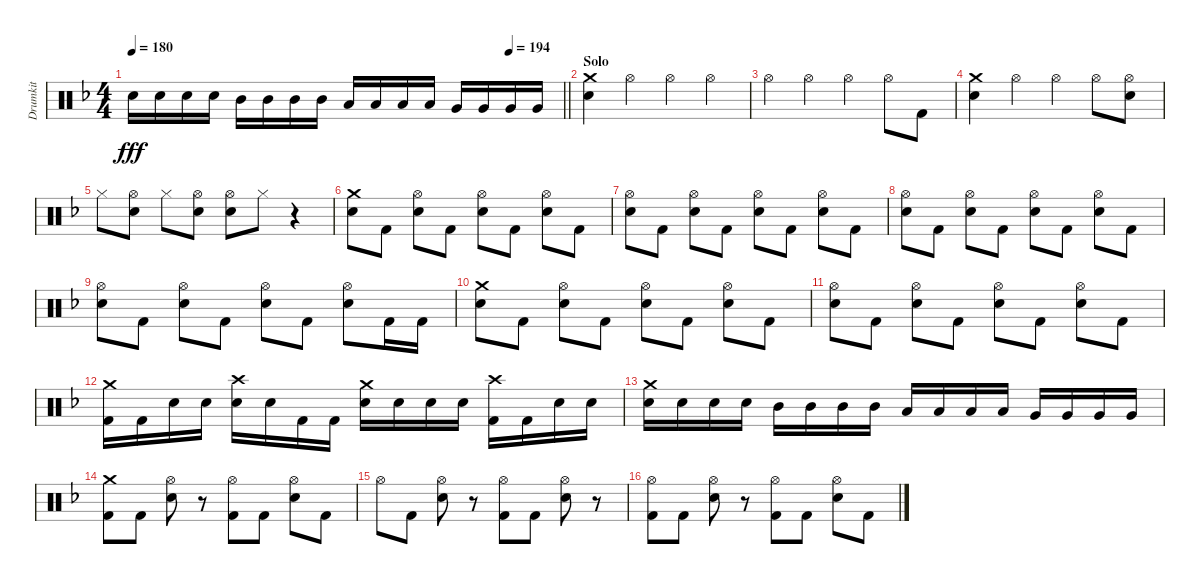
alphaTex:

\track ("Drumkit" "Drumkit") {instrument percussion}
\staff {score}
\articulation defaults
\ts (4 4)
\tempo 180
\tempo (194 0.875)
\clef neutral
\barLineRight lightlight
\ks f "Snare (hit) 2".16{dy fff} "Snare (hit) 2".16 "Snare (hit) 2".16 "Snare (hit) 2".16 "Mid Tom (hit)".16 "Mid Tom (hit)".16 "Mid Tom (hit)".16 "Mid Tom (hit)".16 "Low Tom (hit)".16 "Low Tom (hit)".16 "Low Tom (hit)".16 "Low Tom (hit)".16 "Very Low Tom (hit)".16 "Very Low Tom (hit)".16 "Very Low Tom (hit)".16 "Very Low Tom (hit)".16
|
\section ("" "Solo")
("Crash medium (hit)" "Snare (hit) 2").4 "Hi-Hat (open)".4 "Hi-Hat (open)".4 "Hi-Hat (open)".4 |
"Hi-Hat (open)".4 "Hi-Hat (open)".4 "Hi-Hat (open)".4 "Hi-Hat (open)".8 "Kick (hit) 2".8 |
("Crash medium (hit)" "Snare (hit) 2").4 "Hi-Hat (open)".4 "Hi-Hat (open)".4 "Hi-Hat (open)".8 ("Hi-Hat (open)" "Snare (hit) 2").8 |
"Hi-Hat (closed)".8 ("Hi-Hat (open)" "Snare (hit) 2").8 "Hi-Hat (closed)".8 ("Hi-Hat (open)" "Snare (hit) 2").8 ("Hi-Hat (open)" "Snare (hit) 2").8 "Hi-Hat (closed)".8 r.4 |
("Crash medium (hit)" "Snare (hit) 2").8 "Kick (hit) 2".8 ("Hi-Hat (open)" "Snare (hit) 2").8 "Kick (hit) 2".8 ("Hi-Hat (open)" "Snare (hit) 2").8 "Kick (hit) 2".8 ("Hi-Hat (open)" "Snare (hit) 2").8 "Kick (hit) 2".8 |
("Hi-Hat (open)" "Snare (hit) 2").8 "Kick (hit) 2".8 ("Hi-Hat (open)" "Snare (hit) 2").8 "Kick (hit) 2".8 ("Hi-Hat (open)" "Snare (hit) 2").8 "Kick (hit) 2".8 ("Hi-Hat (open)" "Snare (hit) 2").8 "Kick (hit) 2".8 |
("Hi-Hat (open)" "Snare (hit) 2").8 "Kick (hit) 2".8 ("Hi-Hat (open)" "Snare (hit) 2").8 "Kick (hit) 2".8 ("Hi-Hat (open)" "Snare (hit) 2").8 "Kick (hit) 2".8 ("Hi-Hat (open)" "Snare (hit) 2").8 "Kick (hit) 2".8 |
("Hi-Hat (open)" "Snare (hit) 2").8 "Kick (hit) 2".8 ("Hi-Hat (open)" "Snare (hit) 2").8 "Kick (hit) 2".8 ("Hi-Hat (open)" "Snare (hit) 2").8 "Kick (hit) 2".8 ("Hi-Hat (open)" "Snare (hit) 2").8 "Kick (hit) 2".16 "Kick (hit) 2".16 |
("Crash medium (hit)" "Snare (hit) 2").8 "Kick (hit) 2".8 ("Hi-Hat (open)" "Snare (hit) 2").8 "Kick (hit) 2".8 ("Hi-Hat (open)" "Snare (hit) 2").8 "Kick (hit) 2".8 ("Hi-Hat (open)" "Snare (hit) 2").8 "Kick (hit) 2".8 |
("Hi-Hat (open)" "Snare (hit) 2").8 "Kick (hit) 2".8 ("Hi-Hat (open)" "Snare (hit) 2").8 "Kick (hit) 2".8 ("Hi-Hat (open)" "Snare (hit) 2").8 "Kick (hit) 2".8 ("Hi-Hat (open)" "Snare (hit) 2").8 "Kick (hit) 2".8 |
("Crash medium (hit)" "Kick (hit) 2").16 "Kick (hit) 2".16 "Snare (hit) 2".16 "Snare (hit) 2".16 ("Crash high (hit)" "Snare (hit) 2").16 "Snare (hit) 2".16 "Kick (hit) 2".16 "Kick (hit) 2".16 ("Crash medium (hit)" "Snare (hit) 2").16 "Snare (hit) 2".16 "Snare (hit) 2".16 "Snare (hit) 2".16 ("Crash high (hit)" "Kick (hit) 2").16 "Kick (hit) 2".16 "Snare (hit) 2".16 "Snare (hit) 2".16 |
("Crash medium (hit)" "Snare (hit) 2").16 "Snare (hit) 2".16 "Snare (hit) 2".16 "Snare (hit) 2".16 "Mid Tom (hit)".16 "Mid Tom (hit)".16 "Mid Tom (hit)".16 "Mid Tom (hit)".16 "Low Tom (hit)".16 "Low Tom (hit)".16 "Low Tom (hit)".16 "Low Tom (hit)".16 "Very Low Tom (hit)".16 "Very Low Tom (hit)".16 "Very Low Tom (hit)".16 "Very Low Tom (hit)".16 |
("Crash medium (hit)" "Kick (hit) 2").8 "Kick (hit) 2".8 ("Hi-Hat (open)" "Snare (hit) 2").8 r.8 ("Hi-Hat (open)" "Kick (hit) 2").8 "Kick (hit) 2".8 ("Hi-Hat (open)" "Snare (hit) 2").8 "Kick (hit) 2".8 |
"Hi-Hat (open)".8 "Kick (hit) 2".8 ("Hi-Hat (open)" "Snare (hit) 2").8 r.8 ("Hi-Hat (open)" "Kick (hit) 2").8 "Kick (hit) 2".8 ("Hi-Hat (open)" "Snare (hit) 2").8 r.8 |
("Hi-Hat (open)" "Kick (hit) 2").8 "Kick (hit) 2".8 ("Hi-Hat (open)" "Snare (hit) 2").8 r.8 ("Hi-Hat (open)" "Kick (hit) 2").8 "Kick (hit) 2".8 ("Hi-Hat (open)" "Snare (hit) 2").8 "Kick (hit) 2".8
